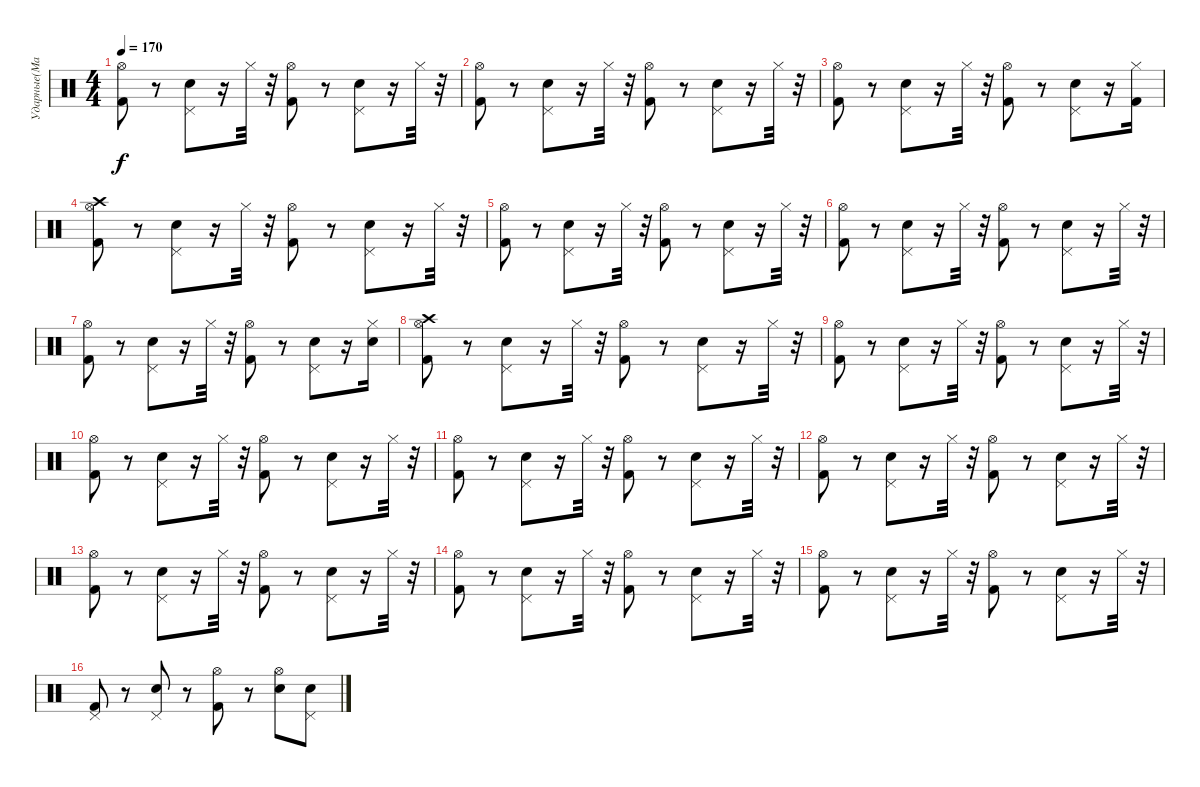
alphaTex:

\track ("Ударные(Май)" "Ударные(Ма") {instrument percussion}
\staff {score}
\articulation defaults
\ts (4 4)
\tempo 170
\clef neutral
\ks c
("Hi-Hat (open)" "Kick (hit) 2").8{dy f} r.8 ("Electric Snare (hit)" "Pedal Hi-Hat (hit)").8 r.16 "Hi-Hat (closed)".32 r.32 ("Kick (hit) 2" "Hi-Hat (open)").8 r.8 ("Electric Snare (hit)" "Pedal Hi-Hat (hit)").8 r.16 "Hi-Hat (closed)".32 r.32 |
("Hi-Hat (open)" "Kick (hit) 2").8 r.8 ("Electric Snare (hit)" "Pedal Hi-Hat (hit)").8 r.16 "Hi-Hat (closed)".32 r.32 ("Kick (hit) 2" "Hi-Hat (open)").8 r.8 ("Electric Snare (hit)" "Pedal Hi-Hat (hit)").8 r.16 "Hi-Hat (closed)".32 r.32 |
("Hi-Hat (open)" "Kick (hit) 2").8 r.8 ("Electric Snare (hit)" "Pedal Hi-Hat (hit)").8 r.16 "Hi-Hat (closed)".32 r.32 ("Kick (hit) 2" "Hi-Hat (open)").8 r.8 ("Electric Snare (hit)" "Pedal Hi-Hat (hit)").8 r.16 ("Hi-Hat (closed)" "Kick (hit) 2").16 |
("Crash high (hit)" "Hi-Hat (open)" "Kick (hit) 2").8 r.8 ("Electric Snare (hit)" "Pedal Hi-Hat (hit)").8 r.16 "Hi-Hat (closed)".32 r.32 ("Kick (hit) 2" "Hi-Hat (open)").8 r.8 ("Electric Snare (hit)" "Pedal Hi-Hat (hit)").8 r.16 "Hi-Hat (closed)".32 r.32 |
("Hi-Hat (open)" "Kick (hit) 2").8 r.8 ("Electric Snare (hit)" "Pedal Hi-Hat (hit)").8 r.16 "Hi-Hat (closed)".32 r.32 ("Kick (hit) 2" "Hi-Hat (open)").8 r.8 ("Electric Snare (hit)" "Pedal Hi-Hat (hit)").8 r.16 "Hi-Hat (closed)".32 r.32 |
("Hi-Hat (open)" "Kick (hit) 2").8 r.8 ("Electric Snare (hit)" "Pedal Hi-Hat (hit)").8 r.16 "Hi-Hat (closed)".32 r.32 ("Kick (hit) 2" "Hi-Hat (open)").8 r.8 ("Electric Snare (hit)" "Pedal Hi-Hat (hit)").8 r.16 "Hi-Hat (closed)".32 r.32 |
("Hi-Hat (open)" "Kick (hit) 2").8 r.8 ("Electric Snare (hit)" "Pedal Hi-Hat (hit)").8 r.16 "Hi-Hat (closed)".32 r.32 ("Kick (hit) 2" "Hi-Hat (open)").8 r.8 ("Electric Snare (hit)" "Pedal Hi-Hat (hit)").8 r.16 ("Hi-Hat (closed)" "Electric Snare (hit)").16 |
("Crash high (hit)" "Hi-Hat (open)" "Kick (hit) 2").8 r.8 ("Electric Snare (hit)" "Pedal Hi-Hat (hit)").8 r.16 "Hi-Hat (closed)".32 r.32 ("Kick (hit) 2" "Hi-Hat (open)").8 r.8 ("Electric Snare (hit)" "Pedal Hi-Hat (hit)").8 r.16 "Hi-Hat (closed)".32 r.32 |
("Hi-Hat (open)" "Kick (hit) 2").8 r.8 ("Electric Snare (hit)" "Pedal Hi-Hat (hit)").8 r.16 "Hi-Hat (closed)".32 r.32 ("Kick (hit) 2" "Hi-Hat (open)").8 r.8 ("Electric Snare (hit)" "Pedal Hi-Hat (hit)").8 r.16 "Hi-Hat (closed)".32 r.32 |
("Hi-Hat (open)" "Kick (hit) 2").8 r.8 ("Electric Snare (hit)" "Pedal Hi-Hat (hit)").8 r.16 "Hi-Hat (closed)".32 r.32 ("Kick (hit) 2" "Hi-Hat (open)").8 r.8 ("Electric Snare (hit)" "Pedal Hi-Hat (hit)").8 r.16 "Hi-Hat (closed)".32 r.32 |
("Hi-Hat (open)" "Kick (hit) 2").8 r.8 ("Electric Snare (hit)" "Pedal Hi-Hat (hit)").8 r.16 "Hi-Hat (closed)".32 r.32 ("Kick (hit) 2" "Hi-Hat (open)").8 r.8 ("Electric Snare (hit)" "Pedal Hi-Hat (hit)").8 r.16 "Hi-Hat (closed)".32 r.32 |
("Hi-Hat (open)" "Kick (hit) 2").8 r.8 ("Electric Snare (hit)" "Pedal Hi-Hat (hit)").8 r.16 "Hi-Hat (closed)".32 r.32 ("Kick (hit) 2" "Hi-Hat (open)").8 r.8 ("Electric Snare (hit)" "Pedal Hi-Hat (hit)").8 r.16 "Hi-Hat (closed)".32 r.32 |
("Hi-Hat (open)" "Kick (hit) 2").8 r.8 ("Electric Snare (hit)" "Pedal Hi-Hat (hit)").8 r.16 "Hi-Hat (closed)".32 r.32 ("Kick (hit) 2" "Hi-Hat (open)").8 r.8 ("Electric Snare (hit)" "Pedal Hi-Hat (hit)").8 r.16 "Hi-Hat (closed)".32 r.32 |
("Hi-Hat (open)" "Kick (hit) 2").8 r.8 ("Electric Snare (hit)" "Pedal Hi-Hat (hit)").8 r.16 "Hi-Hat (closed)".32 r.32 ("Kick (hit) 2" "Hi-Hat (open)").8 r.8 ("Electric Snare (hit)" "Pedal Hi-Hat (hit)").8 r.16 "Hi-Hat (closed)".32 r.32 |
("Hi-Hat (open)" "Kick (hit) 2").8 r.8 ("Electric Snare (hit)" "Pedal Hi-Hat (hit)").8 r.16 "Hi-Hat (closed)".32 r.32 ("Kick (hit) 2" "Hi-Hat (open)").8 r.8 ("Electric Snare (hit)" "Pedal Hi-Hat (hit)").8 r.16 "Hi-Hat (closed)".32 r.32 |
("Pedal Hi-Hat (hit)" "Kick (hit) 2").8 r.8 ("Electric Snare (hit)" "Pedal Hi-Hat (hit)").8 r.8 ("Kick (hit) 2" "Hi-Hat (open)").8 r.8 ("Electric Snare (hit)" "Hi-Hat (open)").8 ("Pedal Hi-Hat (hit)" "Electric Snare (hit)").8
